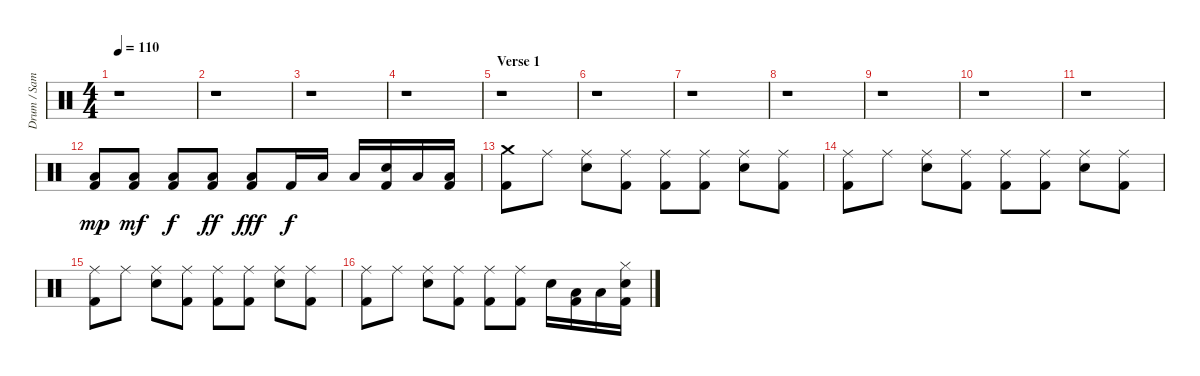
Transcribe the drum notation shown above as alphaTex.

\track ("Drum / Sam" "Drum / Sam") {instrument percussion}
\staff {score}
\articulation defaults
\ts (4 4)
\tempo 110
\clef neutral
\ks c
r.1{dy mp} |
r.1 |
r.1 |
r.1 |
\section ("" "Verse 1")
r.1 |
r.1 |
r.1 |
r.1 |
r.1 |
r.1 |
r.1 |
("Low Tom (hit)" "Kick (hit) 2").8 ("Low Tom (hit)" "Kick (hit) 2").8{dy mf} ("Low Tom (hit)" "Kick (hit) 2").8{dy f} ("Low Tom (hit)" "Kick (hit) 2").8{dy ff} ("Low Tom (hit)" "Kick (hit) 2").8{dy fff} "Kick (hit) 2".16{dy f} "Low Tom (hit)".16 "Low Tom (hit)".16 ("Snare (hit) 2" "Kick (hit) 2").16 "Low Tom (hit)".16 ("Low Tom (hit)" "Kick (hit) 2").16 |
("Crash medium (hit)" "Kick (hit) 2").8 "Ride (middle)".8 ("Ride (middle)" "Snare (hit) 2").8 ("Ride (middle)" "Kick (hit) 2").8 ("Ride (middle)" "Kick (hit) 2").8 ("Ride (middle)" "Kick (hit) 2").8 ("Ride (middle)" "Snare (hit) 2").8 ("Ride (middle)" "Kick (hit) 2").8 |
("Ride (middle)" "Kick (hit) 2").8 "Ride (middle)".8 ("Ride (middle)" "Snare (hit) 2").8 ("Ride (middle)" "Kick (hit) 2").8 ("Ride (middle)" "Kick (hit) 2").8 ("Ride (middle)" "Kick (hit) 2").8 ("Ride (middle)" "Snare (hit) 2").8 ("Ride (middle)" "Kick (hit) 2").8 |
("Ride (middle)" "Kick (hit) 2").8 "Ride (middle)".8 ("Ride (middle)" "Snare (hit) 2").8 ("Ride (middle)" "Kick (hit) 2").8 ("Ride (middle)" "Kick (hit) 2").8 ("Ride (middle)" "Kick (hit) 2").8 ("Ride (middle)" "Snare (hit) 2").8 ("Ride (middle)" "Kick (hit) 2").8 |
("Ride (middle)" "Kick (hit) 2").8 "Ride (middle)".8 ("Ride (middle)" "Snare (hit) 2").8 ("Ride (middle)" "Kick (hit) 2").8 ("Ride (middle)" "Kick (hit) 2").8 ("Ride (middle)" "Kick (hit) 2").8 "Snare (hit) 2".16 ("Low Tom (hit)" "Kick (hit) 2").16 "Low Tom (hit)".16 ("Hi-Hat (closed)" "Snare (hit) 2" "Kick (hit) 2").16
